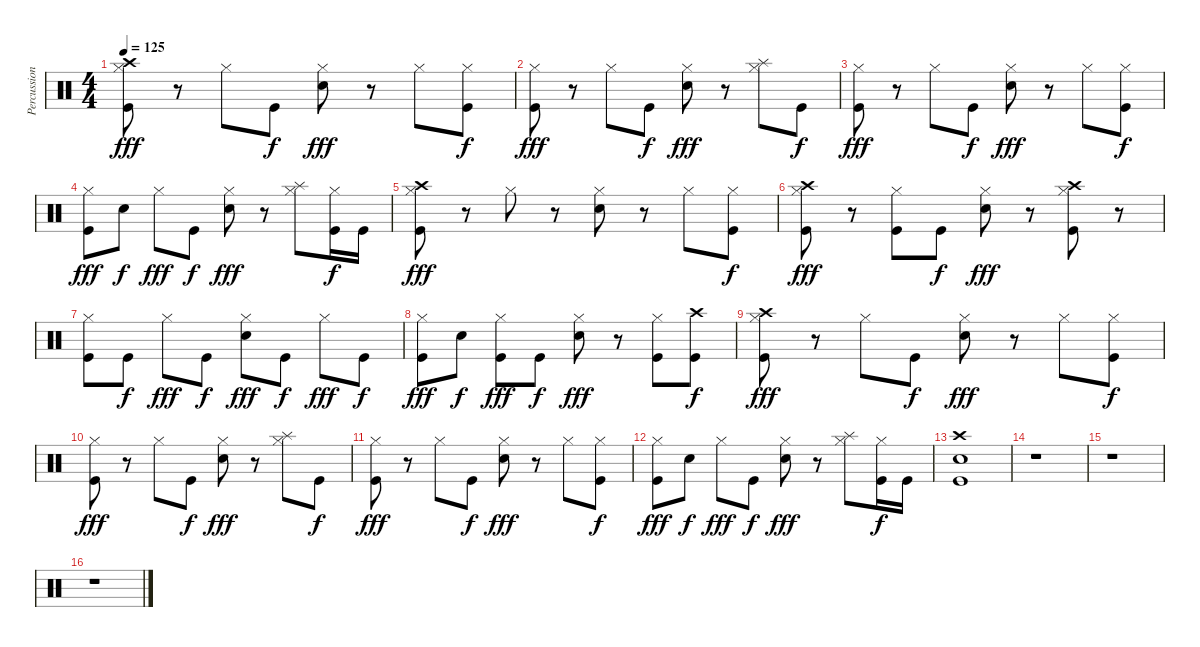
\track ("Percussion" "Percussion") {instrument percussion}
\staff {score}
\articulation defaults
\ts (4 4)
\tempo 125
\clef neutral
\ks c
("Hi-Hat (closed)" "Crash high (hit)" "Kick (hit)").8{dy fff} r.8 "Hi-Hat (closed)".8 "Kick (hit)".8{dy f} ("Hi-Hat (closed)" "Snare (hit) 2").8{dy fff} r.8 "Hi-Hat (closed)".8 ("Hi-Hat (closed)" "Kick (hit)").8{dy f} |
("Hi-Hat (closed)" "Kick (hit)").8{dy fff} r.8 "Hi-Hat (closed)".8 "Kick (hit)".8{dy f} ("Hi-Hat (closed)" "Snare (hit) 2").8{dy fff} r.8 ("Hi-Hat (closed)" "Splash (hit)").8 "Kick (hit)".8{dy f} |
("Hi-Hat (closed)" "Kick (hit)").8{dy fff} r.8 "Hi-Hat (closed)".8 "Kick (hit)".8{dy f} ("Hi-Hat (closed)" "Snare (hit) 2").8{dy fff} r.8 "Hi-Hat (closed)".8 ("Hi-Hat (closed)" "Kick (hit)").8{dy f} |
("Hi-Hat (closed)" "Kick (hit)").8{dy fff} "Snare (hit) 2".8{dy f} "Hi-Hat (closed)".8{dy fff} "Kick (hit)".8{dy f} ("Hi-Hat (closed)" "Snare (hit) 2").8{dy fff} r.8 ("Hi-Hat (closed)" "Splash (hit)").8 ("Hi-Hat (closed)" "Kick (hit)").16{dy f} "Kick (hit)".16 |
("Hi-Hat (closed)" "Crash high (hit)" "Kick (hit)").8{dy fff} r.8 "Hi-Hat (closed)".8 r.8 ("Hi-Hat (closed)" "Snare (hit) 2").8 r.8 "Hi-Hat (closed)".8 ("Hi-Hat (closed)" "Kick (hit)").8{dy f} |
("Hi-Hat (closed)" "Crash high (hit)" "Kick (hit)").8{dy fff} r.8 ("Hi-Hat (closed)" "Kick (hit)").8 "Kick (hit)".8{dy f} ("Hi-Hat (closed)" "Snare (hit) 2").8{dy fff} r.8 ("Hi-Hat (closed)" "Crash high (hit)" "Kick (hit)").8 r.8 |
("Hi-Hat (closed)" "Kick (hit)").8 "Kick (hit)".8{dy f} "Hi-Hat (closed)".8{dy fff} "Kick (hit)".8{dy f} ("Hi-Hat (closed)" "Snare (hit) 2").8{dy fff} "Kick (hit)".8{dy f} "Hi-Hat (closed)".8{dy fff} "Kick (hit)".8{dy f} |
("Hi-Hat (closed)" "Kick (hit)").8{dy fff} "Snare (hit) 2".8{dy f} ("Hi-Hat (closed)" "Kick (hit)").8{dy fff} "Kick (hit)".8{dy f} ("Hi-Hat (closed)" "Snare (hit) 2").8{dy fff} r.8 ("Hi-Hat (closed)" "Kick (hit)").8 ("Crash high (hit)" "Kick (hit)").8{dy f} |
("Hi-Hat (closed)" "Crash high (hit)" "Kick (hit)").8{dy fff} r.8 "Hi-Hat (closed)".8 "Kick (hit)".8{dy f} ("Hi-Hat (closed)" "Snare (hit) 2").8{dy fff} r.8 "Hi-Hat (closed)".8 ("Hi-Hat (closed)" "Kick (hit)").8{dy f} |
("Hi-Hat (closed)" "Kick (hit)").8{dy fff} r.8 "Hi-Hat (closed)".8 "Kick (hit)".8{dy f} ("Hi-Hat (closed)" "Snare (hit) 2").8{dy fff} r.8 ("Hi-Hat (closed)" "Splash (hit)").8 "Kick (hit)".8{dy f} |
("Hi-Hat (closed)" "Kick (hit)").8{dy fff} r.8 "Hi-Hat (closed)".8 "Kick (hit)".8{dy f} ("Hi-Hat (closed)" "Snare (hit) 2").8{dy fff} r.8 "Hi-Hat (closed)".8 ("Hi-Hat (closed)" "Kick (hit)").8{dy f} |
("Hi-Hat (closed)" "Kick (hit)").8{dy fff} "Snare (hit) 2".8{dy f} "Hi-Hat (closed)".8{dy fff} "Kick (hit)".8{dy f} ("Hi-Hat (closed)" "Snare (hit) 2").8{dy fff} r.8 ("Hi-Hat (closed)" "Splash (hit)").8 ("Hi-Hat (closed)" "Kick (hit)").16{dy f} "Kick (hit)".16 |
("Crash high (hit)" "Kick (hit)" "Snare (hit) 2").1 |
r.1 |
r.1 |
r.1
